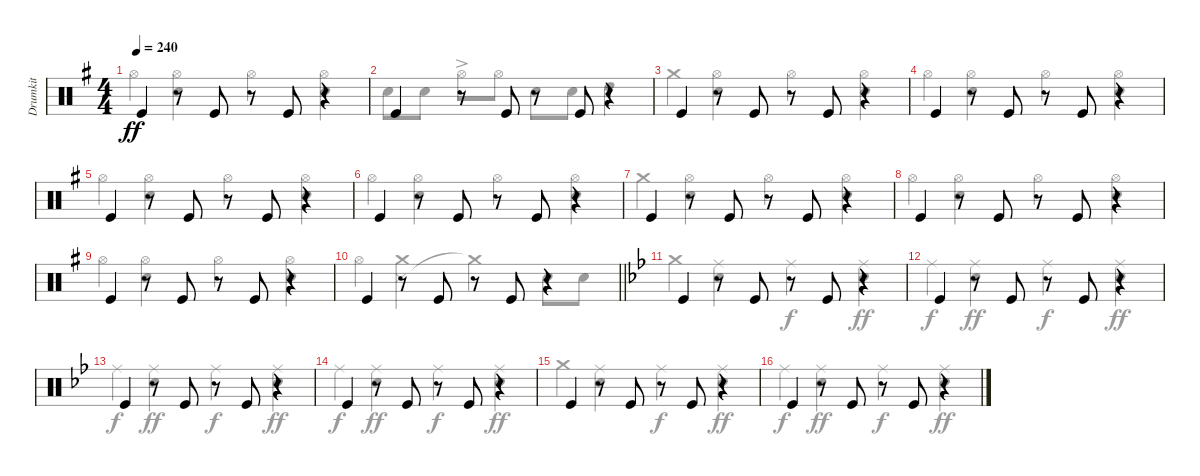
\track ("Drumkit" "Drumkit") {instrument percussion}
\staff {score}
\articulation defaults
\voice
\ts (4 4)
\tempo 240
\clef neutral
\ks g "Kick (hit)".4{dy ff}
r.8 "Kick (hit)".8 r.8 "Kick (hit)".8 r.4 |
"Kick (hit)".4 r.8 "Kick (hit)".8 r.8 "Kick (hit)".8 r.4 |
"Kick (hit)".4 r.8 "Kick (hit)".8 r.8 "Kick (hit)".8 r.4 |
"Kick (hit)".4 r.8 "Kick (hit)".8 r.8 "Kick (hit)".8 r.4 |
"Kick (hit)".4 r.8 "Kick (hit)".8 r.8 "Kick (hit)".8 r.4 |
"Kick (hit)".4 r.8 "Kick (hit)".8 r.8 "Kick (hit)".8 r.4 |
"Kick (hit)".4 r.8 "Kick (hit)".8 r.8 "Kick (hit)".8 r.4 |
"Kick (hit)".4 r.8 "Kick (hit)".8 r.8 "Kick (hit)".8 r.4 |
"Kick (hit)".4 r.8 "Kick (hit)".8 r.8 "Kick (hit)".8 r.4 |
\barLineRight lightlight "Kick (hit)".4
r.8 "Kick (hit)".8 r.8 "Kick (hit)".8 r.4 |
\section ("" "")
\ks bb "Kick (hit)".4
r.8 "Kick (hit)".8 r.8 "Kick (hit)".8 r.4 |
"Kick (hit)".4 r.8 "Kick (hit)".8 r.8 "Kick (hit)".8 r.4 |
"Kick (hit)".4 r.8 "Kick (hit)".8 r.8 "Kick (hit)".8 r.4 |
"Kick (hit)".4 r.8 "Kick (hit)".8 r.8 "Kick (hit)".8 r.4 |
"Kick (hit)".4 r.8 "Kick (hit)".8 r.8 "Kick (hit)".8 r.4 |
"Kick (hit)".4 r.8 "Kick (hit)".8 r.8 "Kick (hit)".8 r.4
\voice
\clef neutral
\ottava regular
\simile none
\ks g "Hi-Hat (open)".4{dy ff}
("Hi-Hat (open)" "Snare (hit) 2").4 "Hi-Hat (open)".4 ("Hi-Hat (open)" "Snare (hit) 2").4 |
"Snare (hit) 2".8 "Snare (hit) 2".8 "Hi-Hat (open)"{ac}.8 "Hi-Hat (open)".8 "Snare (hit) 2".8 "Snare (hit) 2".8 "High Tom (hit)".4 |
"Crash medium (hit)".4 ("Hi-Hat (open)" "Snare (hit) 2").4 "Hi-Hat (open)".4 ("Hi-Hat (open)" "Snare (hit) 2").4 |
"Hi-Hat (open)".4 ("Hi-Hat (open)" "Snare (hit) 2").4 "Hi-Hat (open)".4 ("Hi-Hat (open)" "Snare (hit) 2").4 |
"Hi-Hat (open)".4 ("Hi-Hat (open)" "Snare (hit) 2").4 "Hi-Hat (open)".4 ("Hi-Hat (open)" "Snare (hit) 2").4 |
"Hi-Hat (open)".4 ("Hi-Hat (open)" "Snare (hit) 2").4 "Hi-Hat (open)".4 ("Hi-Hat (open)" "Snare (hit) 2").4 |
"Crash medium (hit)".4 ("Hi-Hat (open)" "Snare (hit) 2").4 "Hi-Hat (open)".4 ("Hi-Hat (open)" "Snare (hit) 2").4 |
"Hi-Hat (open)".4 ("Hi-Hat (open)" "Snare (hit) 2").4 "Hi-Hat (open)".4 ("Hi-Hat (open)" "Snare (hit) 2").4 |
"Hi-Hat (open)".4 ("Hi-Hat (open)" "Snare (hit) 2").4 "Hi-Hat (open)".4 ("Hi-Hat (open)" "Snare (hit) 2").4 |
\barLineRight lightlight "Hi-Hat (open)".4
("Snare (side stick) 3" "Crash medium (hit)").4 "Crash medium (hit)"{t}.4 "Snare (hit) 2".8 "Snare (hit) 2".8 |
\ks bb "Crash medium (hit)".4
("Ride (middle)" "Snare (hit) 2").4 "Ride (middle)".4{dy f} ("Ride (middle)" "Snare (hit) 2").4{dy ff} |
"Ride (middle)".4{dy f} ("Ride (middle)" "Snare (hit) 2").4{dy ff} "Ride (middle)".4{dy f} ("Ride (middle)" "Snare (hit) 2").4{dy ff} |
"Ride (middle)".4{dy f} ("Ride (middle)" "Snare (hit) 2").4{dy ff} "Ride (middle)".4{dy f} ("Ride (middle)" "Snare (hit) 2").4{dy ff} |
"Ride (middle)".4{dy f} ("Ride (middle)" "Snare (hit) 2").4{dy ff} "Ride (middle)".4{dy f} ("Ride (middle)" "Snare (hit) 2").4{dy ff} |
"Crash medium (hit)".4 ("Ride (middle)" "Snare (hit) 2").4 "Ride (middle)".4{dy f} ("Ride (middle)" "Snare (hit) 2").4{dy ff} |
"Ride (middle)".4{dy f} ("Ride (middle)" "Snare (hit) 2").4{dy ff} "Ride (middle)".4{dy f} ("Ride (middle)" "Snare (hit) 2").4{dy ff}
